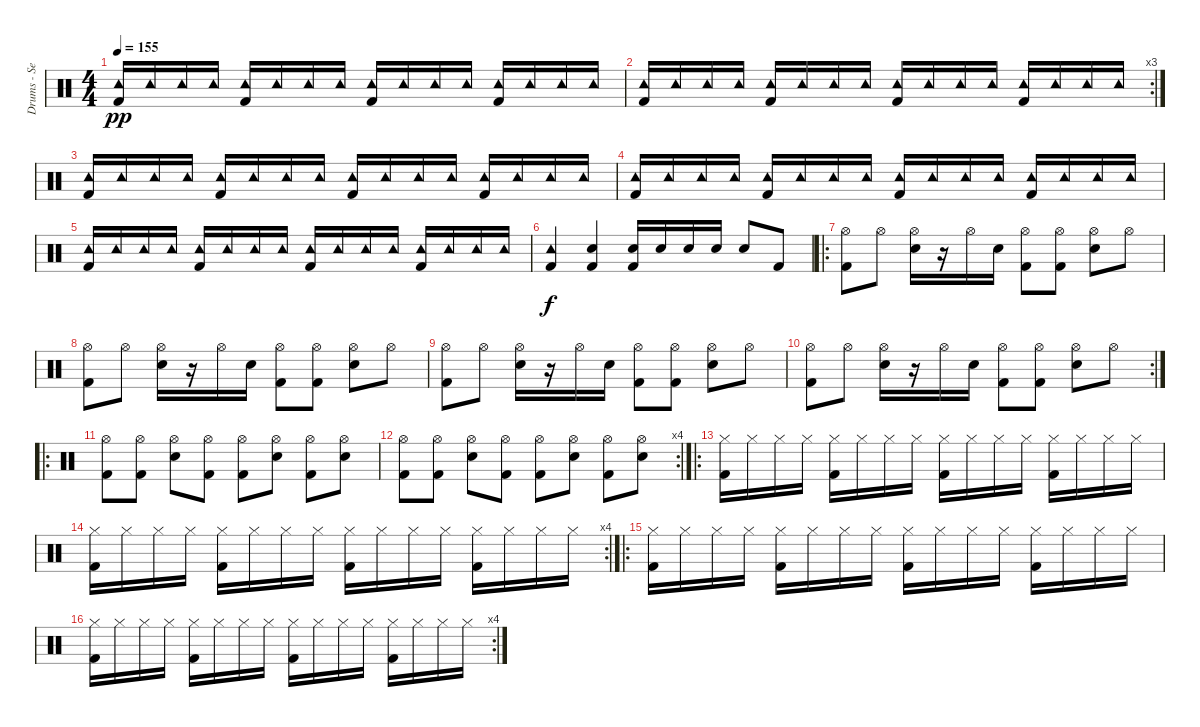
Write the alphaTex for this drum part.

\track ("Drums - Sebastien" "Drums - Se") {instrument percussion}
\staff {score}
\articulation defaults
\ts (4 4)
\tempo 155
\clef neutral
\ks c
("Tambourine (hit)" "Kick (hit) 2").16{dy pp} "Tambourine (hit)".16 "Tambourine (hit)".16 "Tambourine (hit)".16 ("Tambourine (hit)" "Kick (hit) 2").16 "Tambourine (hit)".16 "Tambourine (hit)".16 "Tambourine (hit)".16 ("Tambourine (hit)" "Kick (hit) 2").16 "Tambourine (hit)".16 "Tambourine (hit)".16 "Tambourine (hit)".16 ("Tambourine (hit)" "Kick (hit) 2").16 "Tambourine (hit)".16 "Tambourine (hit)".16 "Tambourine (hit)".16 |
\rc 3
("Tambourine (hit)" "Kick (hit) 2").16 "Tambourine (hit)".16 "Tambourine (hit)".16 "Tambourine (hit)".16 ("Tambourine (hit)" "Kick (hit) 2").16 "Tambourine (hit)".16 "Tambourine (hit)".16 "Tambourine (hit)".16 ("Tambourine (hit)" "Kick (hit) 2").16 "Tambourine (hit)".16 "Tambourine (hit)".16 "Tambourine (hit)".16 ("Tambourine (hit)" "Kick (hit) 2").16 "Tambourine (hit)".16 "Tambourine (hit)".16 "Tambourine (hit)".16 |
("Tambourine (hit)" "Kick (hit) 2").16 "Tambourine (hit)".16 "Tambourine (hit)".16 "Tambourine (hit)".16 ("Tambourine (hit)" "Kick (hit) 2").16 "Tambourine (hit)".16 "Tambourine (hit)".16 "Tambourine (hit)".16 ("Tambourine (hit)" "Kick (hit) 2").16 "Tambourine (hit)".16 "Tambourine (hit)".16 "Tambourine (hit)".16 ("Tambourine (hit)" "Kick (hit) 2").16 "Tambourine (hit)".16 "Tambourine (hit)".16 "Tambourine (hit)".16 |
("Tambourine (hit)" "Kick (hit) 2").16 "Tambourine (hit)".16 "Tambourine (hit)".16 "Tambourine (hit)".16 ("Tambourine (hit)" "Kick (hit) 2").16 "Tambourine (hit)".16 "Tambourine (hit)".16 "Tambourine (hit)".16 ("Tambourine (hit)" "Kick (hit) 2").16 "Tambourine (hit)".16 "Tambourine (hit)".16 "Tambourine (hit)".16 ("Tambourine (hit)" "Kick (hit) 2").16 "Tambourine (hit)".16 "Tambourine (hit)".16 "Tambourine (hit)".16 |
("Tambourine (hit)" "Kick (hit) 2").16 "Tambourine (hit)".16 "Tambourine (hit)".16 "Tambourine (hit)".16 ("Tambourine (hit)" "Kick (hit) 2").16 "Tambourine (hit)".16 "Tambourine (hit)".16 "Tambourine (hit)".16 ("Tambourine (hit)" "Kick (hit) 2").16 "Tambourine (hit)".16 "Tambourine (hit)".16 "Tambourine (hit)".16 ("Tambourine (hit)" "Kick (hit) 2").16 "Tambourine (hit)".16 "Tambourine (hit)".16 "Tambourine (hit)".16 |
("Tambourine (hit)" "Kick (hit) 2").4{dy f} ("Snare (hit) 2" "Kick (hit) 2").4 ("Snare (hit) 2" "Kick (hit) 2").16 "Snare (hit) 2".16 "Snare (hit) 2".16 "Snare (hit) 2".16 "Snare (hit) 2".8 "Kick (hit) 2".8 |
\ro
("Hi-Hat (open)" "Kick (hit) 2").8 "Hi-Hat (open)".8 ("Hi-Hat (open)" "Snare (hit) 2").16 r.16 "Hi-Hat (open)".16 "Snare (hit) 2".16 ("Hi-Hat (open)" "Kick (hit) 2").8 ("Hi-Hat (open)" "Kick (hit) 2").8 ("Hi-Hat (open)" "Snare (hit) 2").8 "Hi-Hat (open)".8 |
("Hi-Hat (open)" "Kick (hit) 2").8 "Hi-Hat (open)".8 ("Hi-Hat (open)" "Snare (hit) 2").16 r.16 "Hi-Hat (open)".16 "Snare (hit) 2".16 ("Hi-Hat (open)" "Kick (hit) 2").8 ("Hi-Hat (open)" "Kick (hit) 2").8 ("Hi-Hat (open)" "Snare (hit) 2").8 "Hi-Hat (open)".8 |
("Hi-Hat (open)" "Kick (hit) 2").8 "Hi-Hat (open)".8 ("Hi-Hat (open)" "Snare (hit) 2").16 r.16 "Hi-Hat (open)".16 "Snare (hit) 2".16 ("Hi-Hat (open)" "Kick (hit) 2").8 ("Hi-Hat (open)" "Kick (hit) 2").8 ("Hi-Hat (open)" "Snare (hit) 2").8 "Hi-Hat (open)".8 |
\rc 2
("Hi-Hat (open)" "Kick (hit) 2").8 "Hi-Hat (open)".8 ("Hi-Hat (open)" "Snare (hit) 2").16 r.16 "Hi-Hat (open)".16 "Snare (hit) 2".16 ("Hi-Hat (open)" "Kick (hit) 2").8 ("Hi-Hat (open)" "Kick (hit) 2").8 ("Hi-Hat (open)" "Snare (hit) 2").8 "Hi-Hat (open)".8 |
\ro
("Hi-Hat (open)" "Kick (hit) 2").8 ("Hi-Hat (open)" "Kick (hit) 2").8 ("Hi-Hat (open)" "Snare (hit) 2").8 ("Hi-Hat (open)" "Kick (hit) 2").8 ("Hi-Hat (open)" "Kick (hit) 2").8 ("Hi-Hat (open)" "Snare (hit) 2").8 ("Hi-Hat (open)" "Kick (hit) 2").8 ("Hi-Hat (open)" "Snare (hit) 2").8 |
\rc 4
("Hi-Hat (open)" "Kick (hit) 2").8 ("Hi-Hat (open)" "Kick (hit) 2").8 ("Hi-Hat (open)" "Snare (hit) 2").8 ("Hi-Hat (open)" "Kick (hit) 2").8 ("Hi-Hat (open)" "Kick (hit) 2").8 ("Hi-Hat (open)" "Snare (hit) 2").8 ("Hi-Hat (open)" "Kick (hit) 2").8 ("Hi-Hat (open)" "Snare (hit) 2").8 |
\ro
("Hi-Hat (closed)" "Kick (hit) 2").16 "Hi-Hat (closed)".16 "Hi-Hat (closed)".16 "Hi-Hat (closed)".16 ("Hi-Hat (closed)" "Kick (hit) 2").16 "Hi-Hat (closed)".16 "Hi-Hat (closed)".16 "Hi-Hat (closed)".16 ("Hi-Hat (closed)" "Kick (hit) 2").16 "Hi-Hat (closed)".16 "Hi-Hat (closed)".16 "Hi-Hat (closed)".16 ("Hi-Hat (closed)" "Kick (hit) 2").16 "Hi-Hat (closed)".16 "Hi-Hat (closed)".16 "Hi-Hat (closed)".16 |
\rc 4
("Hi-Hat (closed)" "Kick (hit) 2").16 "Hi-Hat (closed)".16 "Hi-Hat (closed)".16 "Hi-Hat (closed)".16 ("Hi-Hat (closed)" "Kick (hit) 2").16 "Hi-Hat (closed)".16 "Hi-Hat (closed)".16 "Hi-Hat (closed)".16 ("Hi-Hat (closed)" "Kick (hit) 2").16 "Hi-Hat (closed)".16 "Hi-Hat (closed)".16 "Hi-Hat (closed)".16 ("Hi-Hat (closed)" "Kick (hit) 2").16 "Hi-Hat (closed)".16 "Hi-Hat (closed)".16 "Hi-Hat (closed)".16 |
\ro
("Hi-Hat (closed)" "Kick (hit) 2").16 "Hi-Hat (closed)".16 "Hi-Hat (closed)".16 "Hi-Hat (closed)".16 ("Hi-Hat (closed)" "Kick (hit) 2").16 "Hi-Hat (closed)".16 "Hi-Hat (closed)".16 "Hi-Hat (closed)".16 ("Hi-Hat (closed)" "Kick (hit) 2").16 "Hi-Hat (closed)".16 "Hi-Hat (closed)".16 "Hi-Hat (closed)".16 ("Hi-Hat (closed)" "Kick (hit) 2").16 "Hi-Hat (closed)".16 "Hi-Hat (closed)".16 "Hi-Hat (closed)".16 |
\rc 4
("Hi-Hat (closed)" "Kick (hit) 2").16 "Hi-Hat (closed)".16 "Hi-Hat (closed)".16 "Hi-Hat (closed)".16 ("Hi-Hat (closed)" "Kick (hit) 2").16 "Hi-Hat (closed)".16 "Hi-Hat (closed)".16 "Hi-Hat (closed)".16 ("Hi-Hat (closed)" "Kick (hit) 2").16 "Hi-Hat (closed)".16 "Hi-Hat (closed)".16 "Hi-Hat (closed)".16 ("Hi-Hat (closed)" "Kick (hit) 2").16 "Hi-Hat (closed)".16 "Hi-Hat (closed)".16 "Hi-Hat (closed)".16
